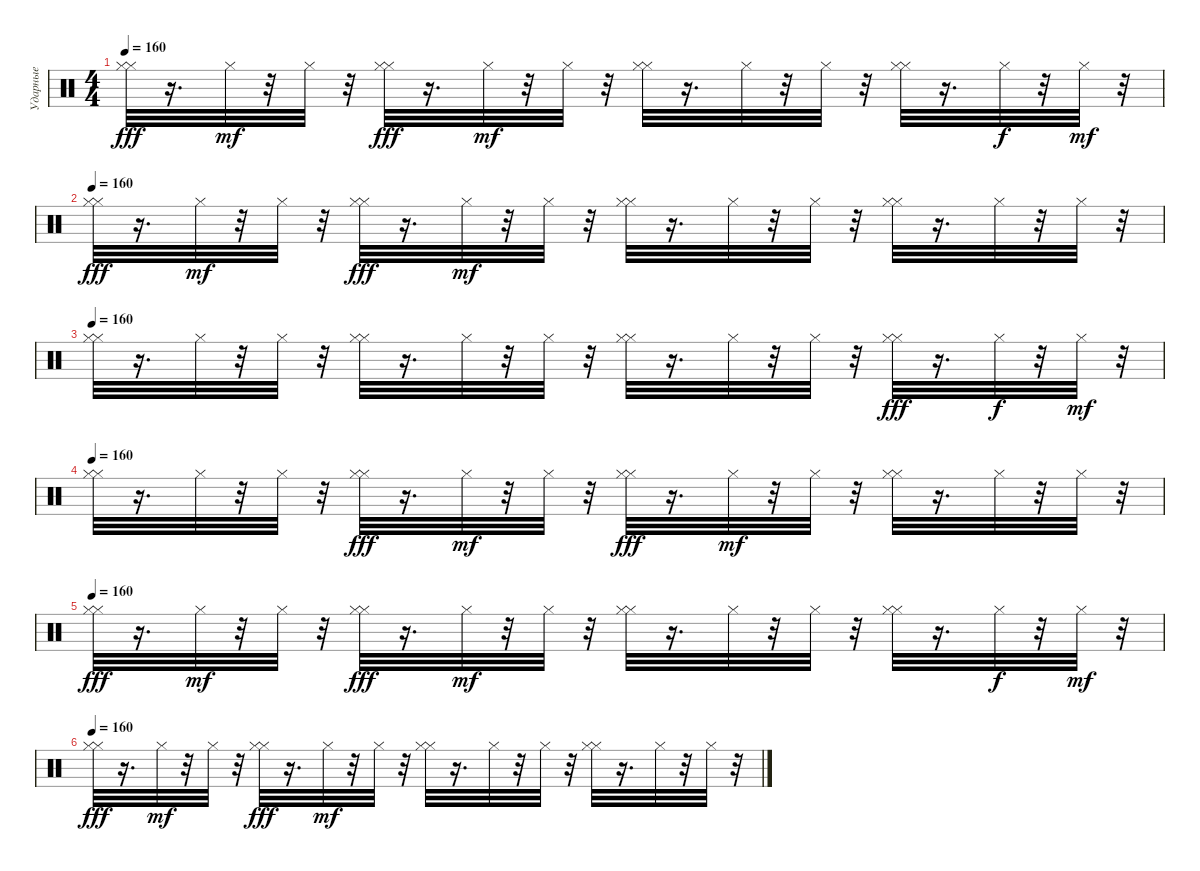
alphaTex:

\track ("Ударные" "Ударные") {instrument percussion}
\staff {score}
\articulation defaults
\ts (4 4)
\tempo 160
\clef neutral
\ks c
("Hi-Hat (closed)" "Hi-Hat (closed)").32{dy fff} r.16{d} "Hi-Hat (closed)".32{dy mf} r.32 "Hi-Hat (closed)".32 r.32 ("Hi-Hat (closed)" "Hi-Hat (closed)").32{dy fff} r.16{d} "Hi-Hat (closed)".32{dy mf} r.32 "Hi-Hat (closed)".32 r.32 ("Hi-Hat (closed)" "Hi-Hat (closed)").32 r.16{d} "Hi-Hat (closed)".32 r.32 "Hi-Hat (closed)".32 r.32 ("Hi-Hat (closed)" "Hi-Hat (closed)").32 r.16{d} "Hi-Hat (closed)".32{dy f} r.32 "Hi-Hat (closed)".32{dy mf} r.32 |
\tempo 160
("Hi-Hat (closed)" "Hi-Hat (closed)").32{dy fff} r.16{d} "Hi-Hat (closed)".32{dy mf} r.32 "Hi-Hat (closed)".32 r.32 ("Hi-Hat (closed)" "Hi-Hat (closed)").32{dy fff} r.16{d} "Hi-Hat (closed)".32{dy mf} r.32 "Hi-Hat (closed)".32 r.32 ("Hi-Hat (closed)" "Hi-Hat (closed)").32 r.16{d} "Hi-Hat (closed)".32 r.32 "Hi-Hat (closed)".32 r.32 ("Hi-Hat (closed)" "Hi-Hat (closed)").32 r.16{d} "Hi-Hat (closed)".32 r.32 "Hi-Hat (closed)".32 r.32 |
\tempo 160
("Hi-Hat (closed)" "Hi-Hat (closed)").32 r.16{d} "Hi-Hat (closed)".32 r.32 "Hi-Hat (closed)".32 r.32 ("Hi-Hat (closed)" "Hi-Hat (closed)").32 r.16{d} "Hi-Hat (closed)".32 r.32 "Hi-Hat (closed)".32 r.32 ("Hi-Hat (closed)" "Hi-Hat (closed)").32 r.16{d} "Hi-Hat (closed)".32 r.32 "Hi-Hat (closed)".32 r.32 ("Hi-Hat (closed)" "Hi-Hat (closed)").32{dy fff} r.16{d} "Hi-Hat (closed)".32{dy f} r.32 "Hi-Hat (closed)".32{dy mf} r.32 |
\tempo 160
("Hi-Hat (closed)" "Hi-Hat (closed)").32 r.16{d} "Hi-Hat (closed)".32 r.32 "Hi-Hat (closed)".32 r.32 ("Hi-Hat (closed)" "Hi-Hat (closed)").32{dy fff} r.16{d} "Hi-Hat (closed)".32{dy mf} r.32 "Hi-Hat (closed)".32 r.32 ("Hi-Hat (closed)" "Hi-Hat (closed)").32{dy fff} r.16{d} "Hi-Hat (closed)".32{dy mf} r.32 "Hi-Hat (closed)".32 r.32 ("Hi-Hat (closed)" "Hi-Hat (closed)").32 r.16{d} "Hi-Hat (closed)".32 r.32 "Hi-Hat (closed)".32 r.32 |
\tempo 160
("Hi-Hat (closed)" "Hi-Hat (closed)").32{dy fff} r.16{d} "Hi-Hat (closed)".32{dy mf} r.32 "Hi-Hat (closed)".32 r.32 ("Hi-Hat (closed)" "Hi-Hat (closed)").32{dy fff} r.16{d} "Hi-Hat (closed)".32{dy mf} r.32 "Hi-Hat (closed)".32 r.32 ("Hi-Hat (closed)" "Hi-Hat (closed)").32 r.16{d} "Hi-Hat (closed)".32 r.32 "Hi-Hat (closed)".32 r.32 ("Hi-Hat (closed)" "Hi-Hat (closed)").32 r.16{d} "Hi-Hat (closed)".32{dy f} r.32 "Hi-Hat (closed)".32{dy mf} r.32 |
\tempo 160
("Hi-Hat (closed)" "Hi-Hat (closed)").32{dy fff} r.16{d} "Hi-Hat (closed)".32{dy mf} r.32 "Hi-Hat (closed)".32 r.32 ("Hi-Hat (closed)" "Hi-Hat (closed)").32{dy fff} r.16{d} "Hi-Hat (closed)".32{dy mf} r.32 "Hi-Hat (closed)".32 r.32 ("Hi-Hat (closed)" "Hi-Hat (closed)").32 r.16{d} "Hi-Hat (closed)".32 r.32 "Hi-Hat (closed)".32 r.32 ("Hi-Hat (closed)" "Hi-Hat (closed)").32 r.16{d} "Hi-Hat (closed)".32 r.32 "Hi-Hat (closed)".32 r.32
